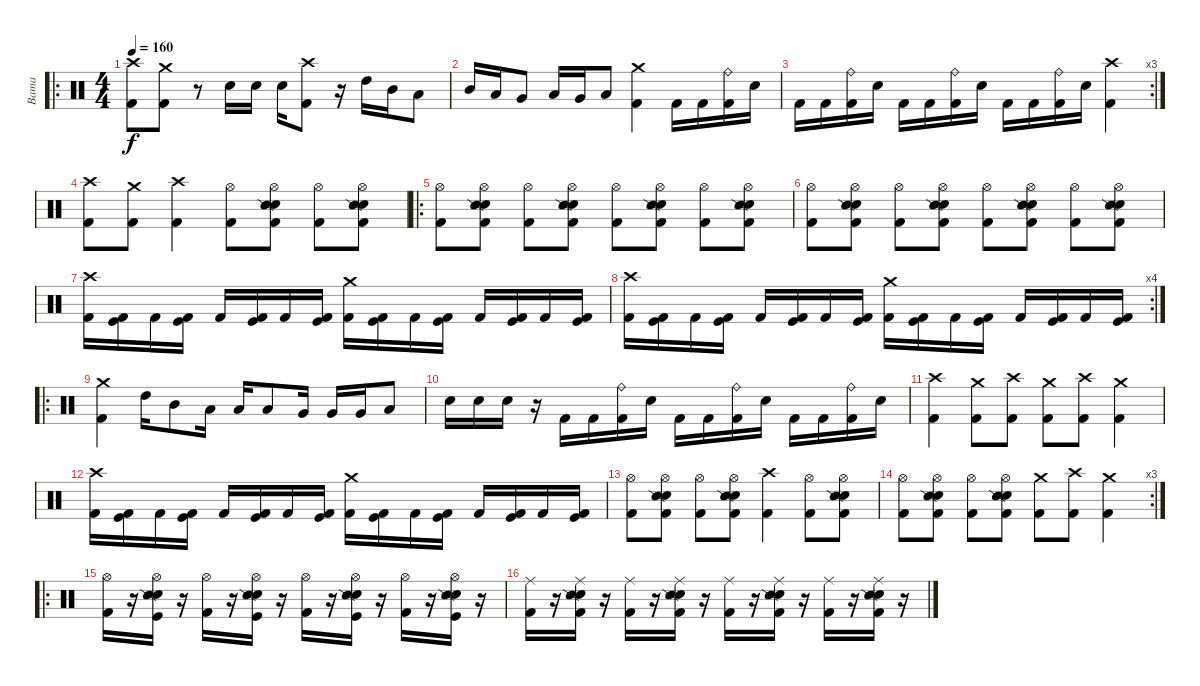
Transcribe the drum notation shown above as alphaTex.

\track ("Bama" "Bama") {instrument percussion}
\staff {score}
\articulation defaults
\ro
\ts (4 4)
\tempo 160
\clef neutral
\ks c
("Crash high (hit)" "Kick (hit) 2").8{dy f} ("Crash medium (hit)" "Kick (hit) 2").8 r.8 "Electric Snare (hit)".16 "Electric Snare (hit)".16 "Electric Snare (hit)".16 ("Crash high (hit)" "Kick (hit) 2").8 r.16 "High Tom (hit)".16 "Mid Tom (hit)".16 "Low Tom (hit)".8 |
"Mid Tom (hit)".16 "Low Tom (hit)".16 "Very Low Tom (hit)".8 "Low Tom (hit)".16 "Very Low Tom (hit)".16 "Low Floor Tom (hit)".8 ("Crash medium (hit)" "Kick (hit) 2").4 "Kick (hit) 2".16 "Kick (hit) 2".16 ("Ride (bell)" "Kick (hit) 2").16 "Electric Snare (hit)".16 |
\rc 3 "Kick (hit) 2".16 "Kick (hit) 2".16
("Ride (bell)" "Kick (hit) 2").16 "Electric Snare (hit)".16 "Kick (hit) 2".16 "Kick (hit) 2".16 ("Ride (bell)" "Kick (hit) 2").16 "Electric Snare (hit)".16 "Kick (hit) 2".16 "Kick (hit) 2".16 ("Ride (bell)" "Kick (hit) 2").16 "Electric Snare (hit)".16 ("Crash high (hit)" "Kick (hit) 2").4 |
("Crash high (hit)" "Kick (hit) 2").8 ("Crash medium (hit)" "Kick (hit) 2").8 ("Crash high (hit)" "Kick (hit) 2").4 ("Hi-Hat (open)" "Kick (hit) 2").8 ("Hi-Hat (open)" "Electric Snare (hit)" "Snare (side stick) 2" "Kick (hit) 2").8 ("Hi-Hat (open)" "Kick (hit) 2").8 ("Hi-Hat (open)" "Electric Snare (hit)" "Snare (side stick) 2" "Kick (hit) 2").8 |
\ro
("Hi-Hat (open)" "Kick (hit) 2").8 ("Hi-Hat (open)" "Electric Snare (hit)" "Snare (side stick) 2" "Kick (hit) 2").8 ("Hi-Hat (open)" "Kick (hit) 2").8 ("Hi-Hat (open)" "Electric Snare (hit)" "Snare (side stick) 2" "Kick (hit) 2").8 ("Hi-Hat (open)" "Kick (hit) 2").8 ("Hi-Hat (open)" "Electric Snare (hit)" "Snare (side stick) 2" "Kick (hit) 2").8 ("Hi-Hat (open)" "Kick (hit) 2").8 ("Hi-Hat (open)" "Electric Snare (hit)" "Snare (side stick) 2" "Kick (hit) 2").8 |
("Hi-Hat (open)" "Kick (hit) 2").8 ("Hi-Hat (open)" "Electric Snare (hit)" "Snare (side stick) 2" "Kick (hit) 2").8 ("Hi-Hat (open)" "Kick (hit) 2").8 ("Hi-Hat (open)" "Electric Snare (hit)" "Snare (side stick) 2" "Kick (hit) 2").8 ("Hi-Hat (open)" "Kick (hit) 2").8 ("Hi-Hat (open)" "Electric Snare (hit)" "Snare (side stick) 2" "Kick (hit) 2").8 ("Hi-Hat (open)" "Kick (hit) 2").8 ("Hi-Hat (open)" "Electric Snare (hit)" "Snare (side stick) 2" "Kick (hit) 2").8 |
("Crash high (hit)" "Kick (hit) 2").16 ("Kick (hit)" "Kick (hit) 2").16 "Kick (hit) 2".16 ("Kick (hit)" "Kick (hit) 2").16 "Kick (hit) 2".16 ("Kick (hit)" "Kick (hit) 2").16 "Kick (hit) 2".16 ("Kick (hit)" "Kick (hit) 2").16 ("Crash medium (hit)" "Kick (hit) 2").16 ("Kick (hit)" "Kick (hit) 2").16 "Kick (hit) 2".16 ("Kick (hit)" "Kick (hit) 2").16 "Kick (hit) 2".16 ("Kick (hit)" "Kick (hit) 2").16 "Kick (hit) 2".16 ("Kick (hit)" "Kick (hit) 2").16 |
\rc 4
("Crash high (hit)" "Kick (hit) 2").16 ("Kick (hit)" "Kick (hit) 2").16 "Kick (hit) 2".16 ("Kick (hit)" "Kick (hit) 2").16 "Kick (hit) 2".16 ("Kick (hit)" "Kick (hit) 2").16 "Kick (hit) 2".16 ("Kick (hit)" "Kick (hit) 2").16 ("Crash medium (hit)" "Kick (hit) 2").16 ("Kick (hit)" "Kick (hit) 2").16 "Kick (hit) 2".16 ("Kick (hit)" "Kick (hit) 2").16 "Kick (hit) 2".16 ("Kick (hit)" "Kick (hit) 2").16 "Kick (hit) 2".16 ("Kick (hit)" "Kick (hit) 2").16 |
\ro
("Crash medium (hit)" "Kick (hit) 2").4 "High Tom (hit)".16 "Mid Tom (hit)".8 "Low Tom (hit)".16 "Low Tom (hit)".16 "Low Tom (hit)".8 "Very Low Tom (hit)".16 "Very Low Tom (hit)".16 "Very Low Tom (hit)".16 "Low Floor Tom (hit)".8 |
"Electric Snare (hit)".16 "Electric Snare (hit)".16 "Electric Snare (hit)".16 r.16 "Kick (hit) 2".16 "Kick (hit) 2".16 ("Ride (bell)" "Kick (hit) 2").16 "Electric Snare (hit)".16 "Kick (hit) 2".16 "Kick (hit) 2".16 ("Ride (bell)" "Kick (hit) 2").16 "Electric Snare (hit)".16 "Kick (hit) 2".16 "Kick (hit) 2".16 ("Ride (bell)" "Kick (hit) 2").16 "Electric Snare (hit)".16 |
("Crash high (hit)" "Kick (hit) 2").4 ("Crash medium (hit)" "Kick (hit) 2").8 ("Crash high (hit)" "Kick (hit) 2").8 ("Crash medium (hit)" "Kick (hit) 2").8 ("Crash high (hit)" "Kick (hit) 2").8 ("Crash medium (hit)" "Kick (hit) 2").4 |
("Crash high (hit)" "Kick (hit) 2").16 ("Kick (hit)" "Kick (hit) 2").16 "Kick (hit) 2".16 ("Kick (hit)" "Kick (hit) 2").16 "Kick (hit) 2".16 ("Kick (hit)" "Kick (hit) 2").16 "Kick (hit) 2".16 ("Kick (hit)" "Kick (hit) 2").16 ("Crash medium (hit)" "Kick (hit) 2").16 ("Kick (hit)" "Kick (hit) 2").16 "Kick (hit) 2".16 ("Kick (hit)" "Kick (hit) 2").16 "Kick (hit) 2".16 ("Kick (hit)" "Kick (hit) 2").16 "Kick (hit) 2".16 ("Kick (hit)" "Kick (hit) 2").16 |
("Hi-Hat (open)" "Kick (hit) 2").8 ("Hi-Hat (open)" "Electric Snare (hit)" "Snare (side stick) 2" "Kick (hit) 2").8 ("Hi-Hat (open)" "Kick (hit) 2").8 ("Hi-Hat (open)" "Electric Snare (hit)" "Snare (side stick) 2" "Kick (hit) 2").8 ("Crash high (hit)" "Kick (hit) 2").4 ("Hi-Hat (open)" "Kick (hit) 2").8 ("Hi-Hat (open)" "Electric Snare (hit)" "Snare (side stick) 2" "Kick (hit) 2").8 |
\rc 3
("Hi-Hat (open)" "Kick (hit) 2").8 ("Hi-Hat (open)" "Electric Snare (hit)" "Snare (side stick) 2" "Kick (hit) 2").8 ("Hi-Hat (open)" "Kick (hit) 2").8 ("Hi-Hat (open)" "Electric Snare (hit)" "Snare (side stick) 2" "Kick (hit) 2").8 ("Crash medium (hit)" "Kick (hit) 2").8 ("Crash high (hit)" "Kick (hit) 2").8 ("Crash medium (hit)" "Kick (hit) 2").4 |
\ro
("Hi-Hat (open)" "Kick (hit) 2").16 r.16 ("Hi-Hat (open)" "Electric Snare (hit)" "Snare (side stick) 2" "Kick (hit)").16 r.16 ("Hi-Hat (open)" "Kick (hit) 2").16 r.16 ("Hi-Hat (open)" "Electric Snare (hit)" "Snare (side stick) 2" "Kick (hit)").16 r.16 ("Hi-Hat (open)" "Kick (hit) 2").16 r.16 ("Hi-Hat (open)" "Electric Snare (hit)" "Snare (side stick) 2" "Kick (hit)").16 r.16 ("Hi-Hat (open)" "Kick (hit) 2").16 r.16 ("Hi-Hat (open)" "Electric Snare (hit)" "Snare (side stick) 2" "Kick (hit)").16 r.16 |
("Ride (middle)" "Kick (hit) 2").16 r.16 ("Ride (middle)" "Electric Snare (hit)" "Snare (side stick) 2" "Kick (hit) 2").16 r.16 ("Ride (middle)" "Kick (hit) 2").16 r.16 ("Ride (middle)" "Electric Snare (hit)" "Snare (side stick) 2" "Kick (hit) 2").16 r.16 ("Ride (middle)" "Kick (hit) 2").16 r.16 ("Ride (middle)" "Electric Snare (hit)" "Snare (side stick) 2" "Kick (hit) 2").16 r.16 ("Ride (middle)" "Kick (hit) 2").16 r.16 ("Ride (middle)" "Electric Snare (hit)" "Snare (side stick) 2" "Kick (hit) 2").16 r.16
